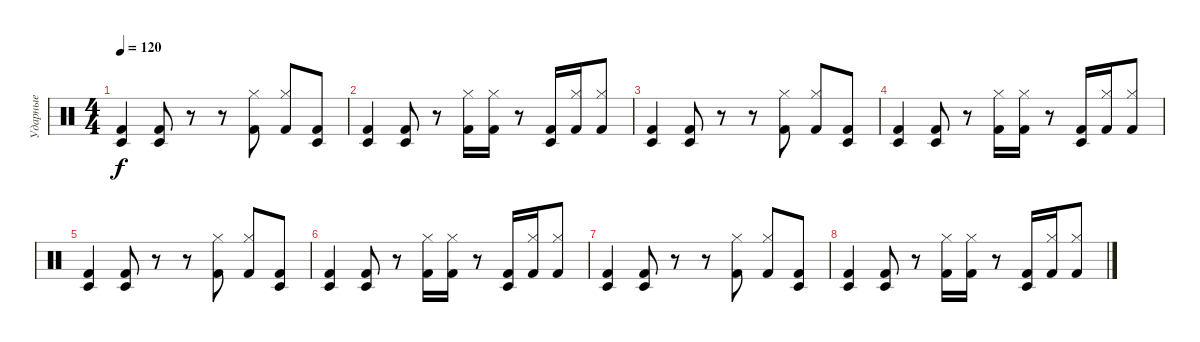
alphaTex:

\track ("Ударные" "Ударные") {instrument percussion}
\staff {score}
\articulation defaults
\ts (4 4)
\tempo 120
\clef neutral
\ks c
("Timbale low (hit)" "Kick (hit) 2").4{dy f} ("Timbale low (hit)" "Kick (hit) 2").8 r.8 r.8 ("Hi-Hat (closed)" "Kick (hit) 2").8 ("Hi-Hat (closed)" "Kick (hit) 2").8 ("Timbale low (hit)" "Kick (hit) 2").8 |
("Timbale low (hit)" "Kick (hit) 2").4 ("Timbale low (hit)" "Kick (hit) 2").8 r.8 ("Hi-Hat (closed)" "Kick (hit) 2").16 ("Hi-Hat (closed)" "Kick (hit) 2").16 r.8 ("Timbale low (hit)" "Kick (hit) 2").16 ("Hi-Hat (closed)" "Kick (hit) 2").16 ("Hi-Hat (closed)" "Kick (hit) 2").8 |
("Timbale low (hit)" "Kick (hit) 2").4 ("Timbale low (hit)" "Kick (hit) 2").8 r.8 r.8 ("Hi-Hat (closed)" "Kick (hit) 2").8 ("Hi-Hat (closed)" "Kick (hit) 2").8 ("Timbale low (hit)" "Kick (hit) 2").8 |
("Timbale low (hit)" "Kick (hit) 2").4 ("Timbale low (hit)" "Kick (hit) 2").8 r.8 ("Hi-Hat (closed)" "Kick (hit) 2").16 ("Hi-Hat (closed)" "Kick (hit) 2").16 r.8 ("Timbale low (hit)" "Kick (hit) 2").16 ("Hi-Hat (closed)" "Kick (hit) 2").16 ("Hi-Hat (closed)" "Kick (hit) 2").8 |
("Timbale low (hit)" "Kick (hit) 2").4 ("Timbale low (hit)" "Kick (hit) 2").8 r.8 r.8 ("Hi-Hat (closed)" "Kick (hit) 2").8 ("Hi-Hat (closed)" "Kick (hit) 2").8 ("Timbale low (hit)" "Kick (hit) 2").8 |
("Timbale low (hit)" "Kick (hit) 2").4 ("Timbale low (hit)" "Kick (hit) 2").8 r.8 ("Hi-Hat (closed)" "Kick (hit) 2").16 ("Hi-Hat (closed)" "Kick (hit) 2").16 r.8 ("Timbale low (hit)" "Kick (hit) 2").16 ("Hi-Hat (closed)" "Kick (hit) 2").16 ("Hi-Hat (closed)" "Kick (hit) 2").8 |
("Timbale low (hit)" "Kick (hit) 2").4 ("Timbale low (hit)" "Kick (hit) 2").8 r.8 r.8 ("Hi-Hat (closed)" "Kick (hit) 2").8 ("Hi-Hat (closed)" "Kick (hit) 2").8 ("Timbale low (hit)" "Kick (hit) 2").8 |
("Timbale low (hit)" "Kick (hit) 2").4 ("Timbale low (hit)" "Kick (hit) 2").8 r.8 ("Hi-Hat (closed)" "Kick (hit) 2").16 ("Hi-Hat (closed)" "Kick (hit) 2").16 r.8 ("Timbale low (hit)" "Kick (hit) 2").16 ("Hi-Hat (closed)" "Kick (hit) 2").16 ("Hi-Hat (closed)" "Kick (hit) 2").8
